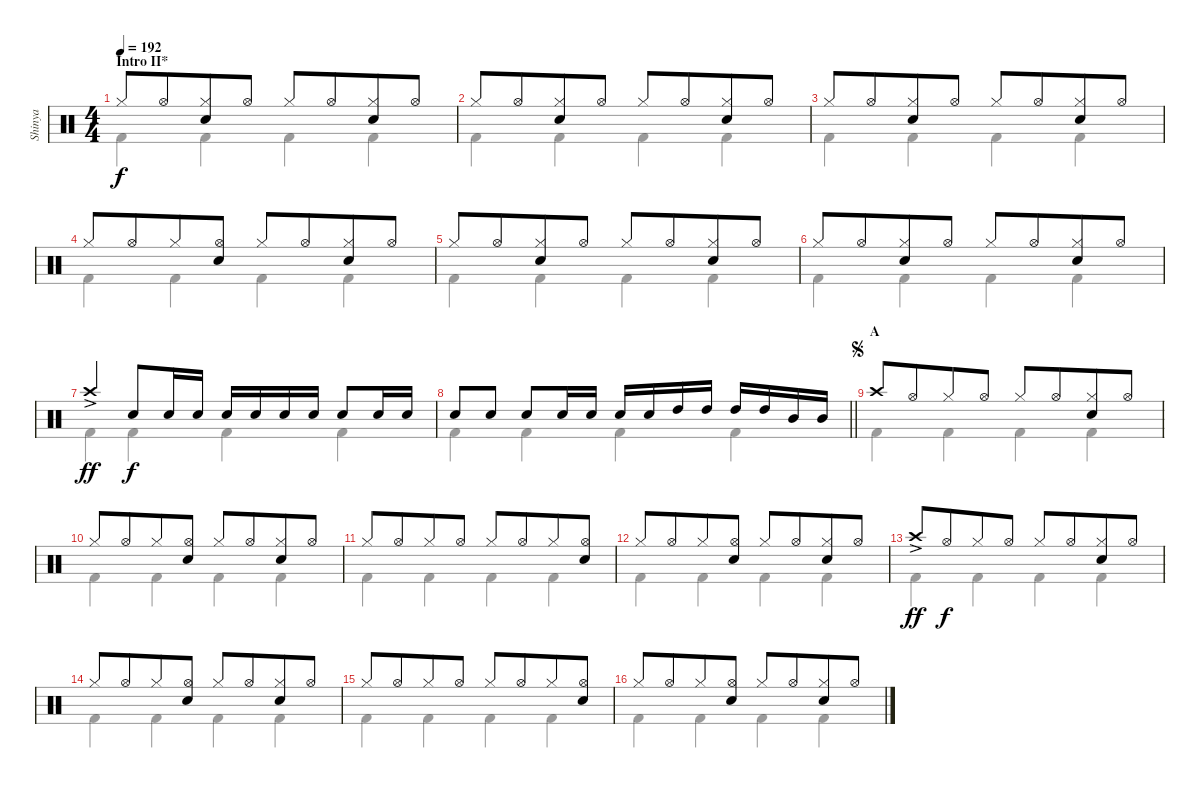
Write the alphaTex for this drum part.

\track ("Shinya" "Shinya") {instrument percussion}
\staff {score}
\articulation defaults
\voice
\ts (4 4)
\section ("" "Intro II*")
\tempo 192
\clef neutral
\ks c "Hi-Hat (closed)".8{dy f} "Hi-Hat (open)".8{beam merge}
("Hi-Hat (closed)" "Snare (hit) 2").8 "Hi-Hat (open)".8 "Hi-Hat (closed)".8 "Hi-Hat (open)".8{beam merge} ("Hi-Hat (closed)" "Snare (hit) 2").8 "Hi-Hat (open)".8 |
"Hi-Hat (closed)".8 "Hi-Hat (open)".8{beam merge} ("Hi-Hat (closed)" "Snare (hit) 2").8 "Hi-Hat (open)".8 "Hi-Hat (closed)".8 "Hi-Hat (open)".8{beam merge} ("Hi-Hat (closed)" "Snare (hit) 2").8 "Hi-Hat (open)".8 |
"Hi-Hat (closed)".8 "Hi-Hat (open)".8{beam merge} ("Hi-Hat (closed)" "Snare (hit) 2").8 "Hi-Hat (open)".8 "Hi-Hat (closed)".8 "Hi-Hat (open)".8{beam merge} ("Hi-Hat (closed)" "Snare (hit) 2").8 "Hi-Hat (open)".8 |
"Hi-Hat (closed)".8 "Hi-Hat (open)".8{beam merge} "Hi-Hat (closed)".8 ("Hi-Hat (open)" "Snare (hit) 2").8 "Hi-Hat (closed)".8 "Hi-Hat (open)".8{beam merge} ("Hi-Hat (closed)" "Snare (hit) 2").8 "Hi-Hat (open)".8 |
"Hi-Hat (closed)".8 "Hi-Hat (open)".8{beam merge} ("Hi-Hat (closed)" "Snare (hit) 2").8 "Hi-Hat (open)".8 "Hi-Hat (closed)".8 "Hi-Hat (open)".8{beam merge} ("Hi-Hat (closed)" "Snare (hit) 2").8 "Hi-Hat (open)".8 |
"Hi-Hat (closed)".8 "Hi-Hat (open)".8{beam merge} ("Hi-Hat (closed)" "Snare (hit) 2").8 "Hi-Hat (open)".8 "Hi-Hat (closed)".8 "Hi-Hat (open)".8{beam merge} ("Hi-Hat (closed)" "Snare (hit) 2").8 "Hi-Hat (open)".8 |
"Crash high (hit)"{ac}.4{dy ff beam merge} "Snare (hit) 2".8{dy f} "Snare (hit) 2".16 "Snare (hit) 2".16 "Snare (hit) 2".16 "Snare (hit) 2".16 "Snare (hit) 2".16 "Snare (hit) 2".16{beam split} "Snare (hit) 2".8 "Snare (hit) 2".16 "Snare (hit) 2".16 |
\barLineRight lightlight "Snare (hit) 2".8 "Snare (hit) 2".8{beam split} "Snare (hit) 2".8 "Snare (hit) 2".16 "Snare (hit) 2".16 "Snare (hit) 2".16 "Snare (hit) 2".16{beam merge} "High Tom (hit)".16 "High Tom (hit)".16 "High Tom (hit)".16 "High Tom (hit)".16 "Mid Tom (hit)".16 "Mid Tom (hit)".16
|
\section ("" "A")
\jump segno "Crash high (hit)".8 "Hi-Hat (open)".8{beam merge} "Hi-Hat (closed)".8 "Hi-Hat (open)".8 "Hi-Hat (closed)".8 "Hi-Hat (open)".8{beam merge}
("Hi-Hat (closed)" "Snare (hit) 2").8 "Hi-Hat (open)".8 |
"Hi-Hat (closed)".8 "Hi-Hat (open)".8{beam merge} "Hi-Hat (closed)".8 ("Hi-Hat (open)" "Snare (hit) 2").8 "Hi-Hat (closed)".8 "Hi-Hat (open)".8{beam merge} ("Hi-Hat (closed)" "Snare (hit) 2").8 "Hi-Hat (open)".8 |
"Hi-Hat (closed)".8 "Hi-Hat (open)".8{beam merge} "Hi-Hat (closed)".8 "Hi-Hat (open)".8 "Hi-Hat (closed)".8 "Hi-Hat (open)".8{beam merge} "Hi-Hat (closed)".8 ("Hi-Hat (open)" "Snare (hit) 2").8 |
"Hi-Hat (closed)".8 "Hi-Hat (open)".8{beam merge} "Hi-Hat (closed)".8 ("Hi-Hat (open)" "Snare (hit) 2").8 "Hi-Hat (closed)".8 "Hi-Hat (open)".8{beam merge} ("Hi-Hat (closed)" "Snare (hit) 2").8 "Hi-Hat (open)".8 |
"Crash high (hit)"{ac}.8{dy ff} "Hi-Hat (open)".8{dy f beam merge} "Hi-Hat (closed)".8 "Hi-Hat (open)".8 "Hi-Hat (closed)".8 "Hi-Hat (open)".8{beam merge} ("Hi-Hat (closed)" "Snare (hit) 2").8 "Hi-Hat (open)".8 |
"Hi-Hat (closed)".8 "Hi-Hat (open)".8{beam merge} "Hi-Hat (closed)".8 ("Hi-Hat (open)" "Snare (hit) 2").8 "Hi-Hat (closed)".8 "Hi-Hat (open)".8{beam merge} ("Hi-Hat (closed)" "Snare (hit) 2").8 "Hi-Hat (open)".8 |
"Hi-Hat (closed)".8 "Hi-Hat (open)".8{beam merge} "Hi-Hat (closed)".8 "Hi-Hat (open)".8 "Hi-Hat (closed)".8 "Hi-Hat (open)".8{beam merge} "Hi-Hat (closed)".8 ("Hi-Hat (open)" "Snare (hit) 2").8 |
"Hi-Hat (closed)".8 "Hi-Hat (open)".8{beam merge} "Hi-Hat (closed)".8 ("Hi-Hat (open)" "Snare (hit) 2").8 "Hi-Hat (closed)".8 "Hi-Hat (open)".8{beam merge} ("Hi-Hat (closed)" "Snare (hit) 2").8 "Hi-Hat (open)".8
\voice
\clef neutral
\ottava regular
\simile none
\ks c "Kick (hit) 2".4{dy f} "Kick (hit) 2".4 "Kick (hit) 2".4 "Kick (hit) 2".4
|
"Kick (hit) 2".4 "Kick (hit) 2".4 "Kick (hit) 2".4 "Kick (hit) 2".4 |
"Kick (hit) 2".4 "Kick (hit) 2".4 "Kick (hit) 2".4 "Kick (hit) 2".4 |
"Kick (hit) 2".4 "Kick (hit) 2".4 "Kick (hit) 2".4 "Kick (hit) 2".4 |
"Kick (hit) 2".4 "Kick (hit) 2".4 "Kick (hit) 2".4 "Kick (hit) 2".4 |
"Kick (hit) 2".4 "Kick (hit) 2".4 "Kick (hit) 2".4 "Kick (hit) 2".4 |
"Kick (hit) 2".4 "Kick (hit) 2".4 "Kick (hit) 2".4 "Kick (hit) 2".4 |
\barLineRight lightlight "Kick (hit) 2".4 "Kick (hit) 2".4 "Kick (hit) 2".4 "Kick (hit) 2".4
|
"Kick (hit) 2".4 "Kick (hit) 2".4 "Kick (hit) 2".4 "Kick (hit) 2".4 |
"Kick (hit) 2".4 "Kick (hit) 2".4 "Kick (hit) 2".4 "Kick (hit) 2".4 |
"Kick (hit) 2".4 "Kick (hit) 2".4 "Kick (hit) 2".4 "Kick (hit) 2".4 |
"Kick (hit) 2".4 "Kick (hit) 2".4 "Kick (hit) 2".4 "Kick (hit) 2".4 |
"Kick (hit) 2".4 "Kick (hit) 2".4 "Kick (hit) 2".4 "Kick (hit) 2".4 |
"Kick (hit) 2".4 "Kick (hit) 2".4 "Kick (hit) 2".4 "Kick (hit) 2".4 |
"Kick (hit) 2".4 "Kick (hit) 2".4 "Kick (hit) 2".4 "Kick (hit) 2".4 |
"Kick (hit) 2".4 "Kick (hit) 2".4 "Kick (hit) 2".4 "Kick (hit) 2".4
